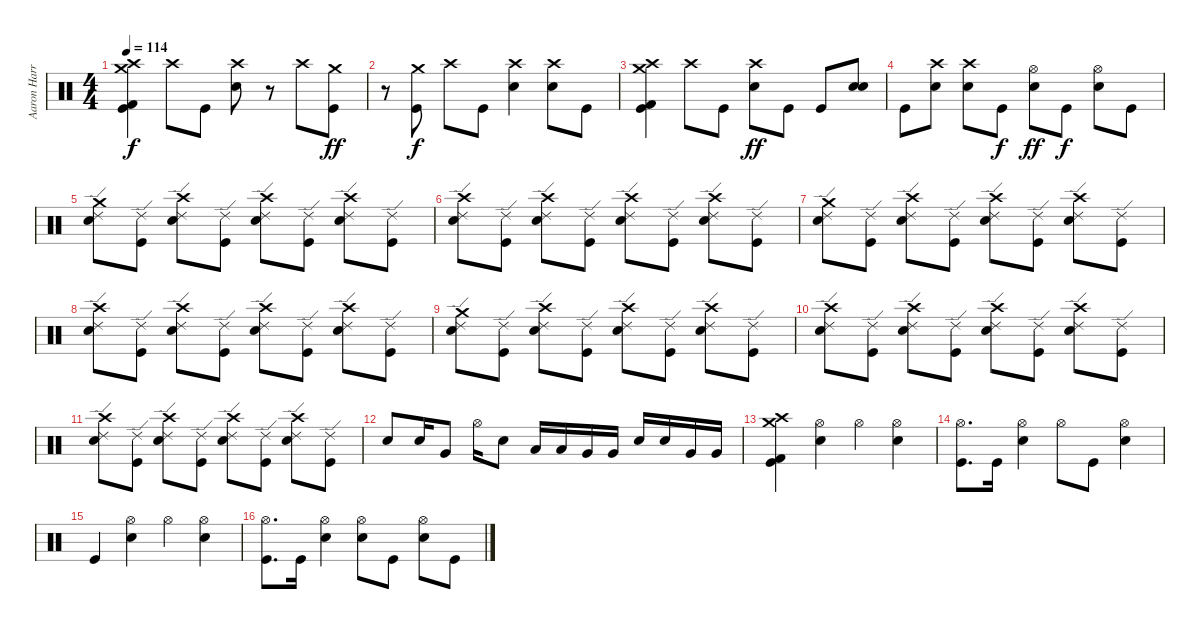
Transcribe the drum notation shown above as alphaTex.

\track ("Aaron Harris" "Aaron Harr") {instrument percussion}
\staff {score}
\articulation defaults
\ts (4 4)
\tempo 114
\clef neutral
\ks c
("Crash medium (hit)" "Crash high (hit)" "Kick (hit) 2" "Kick (hit)").4{dy f} "Crash high (hit)".8 "Kick (hit)".8 ("Crash high (hit)" "Electric Snare (hit)").8 r.8 "Crash high (hit)".8 ("Crash medium (hit)" "Kick (hit)").8{dy ff} |
r.8 ("Crash medium (hit)" "Kick (hit)").8{dy f} "Crash high (hit)".8 "Kick (hit)".8 ("Crash high (hit)" "Electric Snare (hit)").4 ("Crash high (hit)" "Electric Snare (hit)").8 "Kick (hit)".8 |
("Crash medium (hit)" "Crash high (hit)" "Kick (hit) 2" "Kick (hit)").4 "Crash high (hit)".8 "Kick (hit)".8 ("Crash high (hit)" "Electric Snare (hit)").8{dy ff} "Kick (hit)".8 "Kick (hit)".8 ("Electric Snare (hit)" "Electric Snare (hit)").8 |
"Kick (hit)".8 ("Crash high (hit)" "Electric Snare (hit)").8 ("Crash high (hit)" "Electric Snare (hit)").8 "Kick (hit)".8{dy f} ("Hi-Hat (open)" "Electric Snare (hit)").8{dy ff} "Kick (hit)".8{dy f} ("Hi-Hat (open)" "Electric Snare (hit)").8 "Kick (hit)".8 |
("Crash medium (hit)" "Ride (edge) 2" "Electric Snare (hit)").8 ("Ride (edge) 2" "Kick (hit)").8 ("Crash high (hit)" "Ride (edge) 2" "Electric Snare (hit)").8 ("Ride (edge) 2" "Kick (hit)").8 ("Crash high (hit)" "Ride (edge) 2" "Electric Snare (hit)").8 ("Ride (edge) 2" "Kick (hit)").8 ("Crash high (hit)" "Ride (edge) 2" "Electric Snare (hit)").8 ("Ride (edge) 2" "Kick (hit)").8 |
("Crash high (hit)" "Ride (edge) 2" "Electric Snare (hit)").8 ("Ride (edge) 2" "Kick (hit)").8 ("Crash high (hit)" "Ride (edge) 2" "Electric Snare (hit)").8 ("Ride (edge) 2" "Kick (hit)").8 ("Crash high (hit)" "Ride (edge) 2" "Electric Snare (hit)").8 ("Ride (edge) 2" "Kick (hit)").8 ("Crash high (hit)" "Ride (edge) 2" "Electric Snare (hit)").8 ("Ride (edge) 2" "Kick (hit)").8 |
("Crash medium (hit)" "Ride (edge) 2" "Electric Snare (hit)").8 ("Ride (edge) 2" "Kick (hit)").8 ("Crash high (hit)" "Ride (edge) 2" "Electric Snare (hit)").8 ("Ride (edge) 2" "Kick (hit)").8 ("Crash high (hit)" "Ride (edge) 2" "Electric Snare (hit)").8 ("Ride (edge) 2" "Kick (hit)").8 ("Crash high (hit)" "Ride (edge) 2" "Electric Snare (hit)").8 ("Ride (edge) 2" "Kick (hit)").8 |
("Crash high (hit)" "Ride (edge) 2" "Electric Snare (hit)").8 ("Ride (edge) 2" "Kick (hit)").8 ("Crash high (hit)" "Ride (edge) 2" "Electric Snare (hit)").8 ("Ride (edge) 2" "Kick (hit)").8 ("Crash high (hit)" "Ride (edge) 2" "Electric Snare (hit)").8 ("Ride (edge) 2" "Kick (hit)").8 ("Crash high (hit)" "Ride (edge) 2" "Electric Snare (hit)").8 ("Ride (edge) 2" "Kick (hit)").8 |
("Crash medium (hit)" "Ride (edge) 2" "Electric Snare (hit)").8 ("Ride (edge) 2" "Kick (hit)").8 ("Crash high (hit)" "Ride (edge) 2" "Electric Snare (hit)").8 ("Ride (edge) 2" "Kick (hit)").8 ("Crash high (hit)" "Ride (edge) 2" "Electric Snare (hit)").8 ("Ride (edge) 2" "Kick (hit)").8 ("Crash high (hit)" "Ride (edge) 2" "Electric Snare (hit)").8 ("Ride (edge) 2" "Kick (hit)").8 |
("Crash high (hit)" "Ride (edge) 2" "Electric Snare (hit)").8 ("Ride (edge) 2" "Kick (hit)").8 ("Crash high (hit)" "Ride (edge) 2" "Electric Snare (hit)").8 ("Ride (edge) 2" "Kick (hit)").8 ("Crash high (hit)" "Ride (edge) 2" "Electric Snare (hit)").8 ("Ride (edge) 2" "Kick (hit)").8 ("Crash high (hit)" "Ride (edge) 2" "Electric Snare (hit)").8 ("Ride (edge) 2" "Kick (hit)").8 |
("Crash high (hit)" "Ride (edge) 2" "Electric Snare (hit)").8 ("Ride (edge) 2" "Kick (hit)").8 ("Crash high (hit)" "Ride (edge) 2" "Electric Snare (hit)").8 ("Ride (edge) 2" "Kick (hit)").8 ("Crash high (hit)" "Ride (edge) 2" "Electric Snare (hit)").8 ("Ride (edge) 2" "Kick (hit)").8 ("Crash high (hit)" "Ride (edge) 2" "Electric Snare (hit)").8 ("Ride (edge) 2" "Kick (hit)").8 |
"Electric Snare (hit)".8 "Electric Snare (hit)".16 "Very Low Tom (hit)".8 "Hi-Hat (open)".16 "Electric Snare (hit)".8 "Low Tom (hit)".16 "Low Tom (hit)".16 "Very Low Tom (hit)".16 "Very Low Tom (hit)".16 "Electric Snare (hit)".16 "Electric Snare (hit)".16 "Very Low Tom (hit)".16 "Very Low Tom (hit)".16 |
("Crash medium (hit)" "Crash high (hit)" "Kick (hit) 2" "Kick (hit)").4 ("Hi-Hat (open)" "Electric Snare (hit)").4 "Hi-Hat (open)".4 ("Hi-Hat (open)" "Electric Snare (hit)").4 |
("Hi-Hat (open)" "Kick (hit)").8{d} "Kick (hit)".16 ("Hi-Hat (open)" "Electric Snare (hit)").4 "Hi-Hat (open)".8 "Kick (hit)".8 ("Hi-Hat (open)" "Electric Snare (hit)").4 |
"Kick (hit)".4 ("Hi-Hat (open)" "Electric Snare (hit)").4 "Hi-Hat (open)".4 ("Hi-Hat (open)" "Electric Snare (hit)").4 |
("Hi-Hat (open)" "Kick (hit)").8{d} "Kick (hit)".16 ("Hi-Hat (open)" "Electric Snare (hit)").4 ("Hi-Hat (open)" "Electric Snare (hit)").8 "Kick (hit)".8 ("Hi-Hat (open)" "Electric Snare (hit)").8 "Kick (hit)".8
